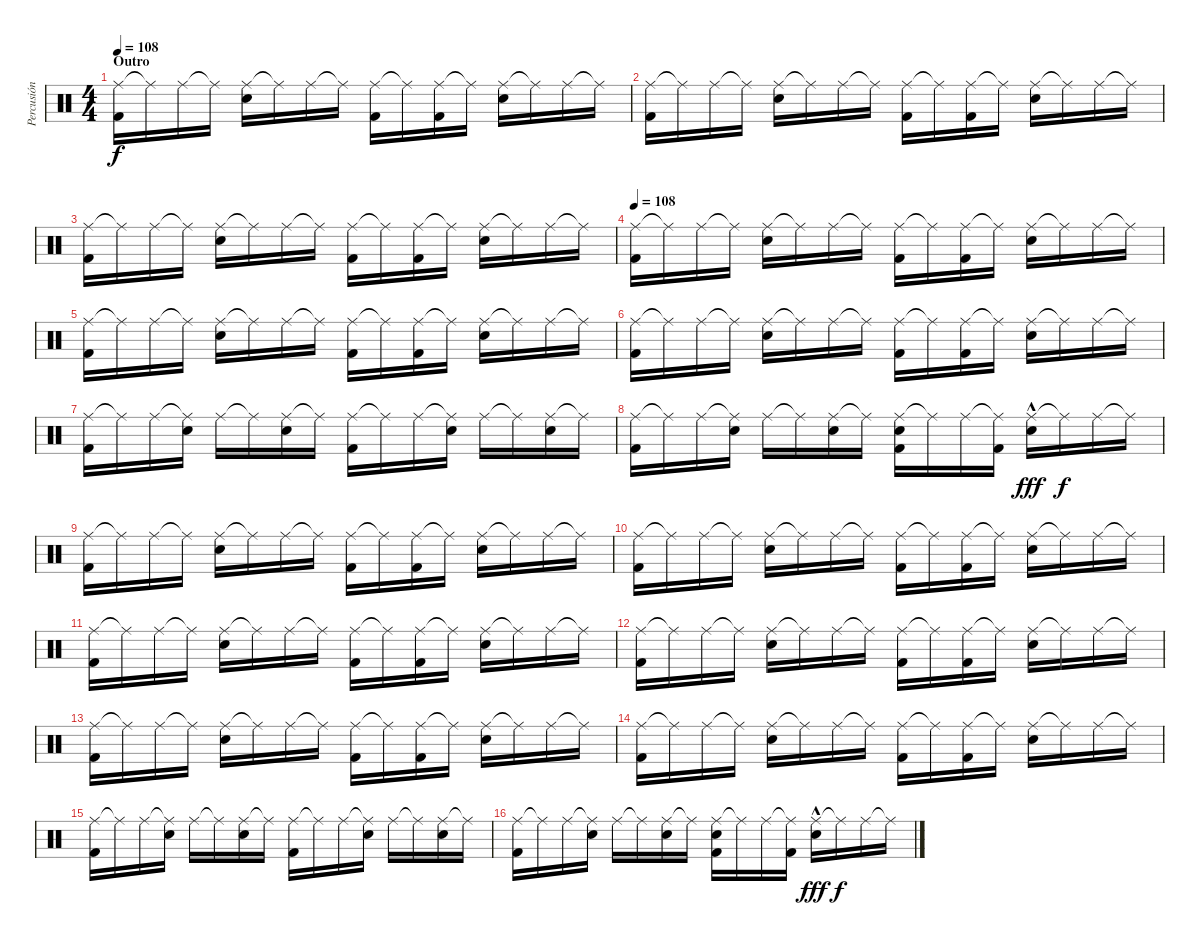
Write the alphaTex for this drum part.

\track ("Percusión" "Percusión") {instrument percussion}
\staff {score}
\articulation defaults
\ts (4 4)
\section ("" "Outro")
\tempo 108
\clef neutral
\ks c
("Ride (middle)" "Kick (hit) 2").16{dy f} "Ride (middle)"{t}.16 "Ride (middle)".16 "Ride (middle)"{t}.16 ("Ride (middle)" "Snare (hit) 2").16 "Ride (middle)"{t}.16 "Ride (middle)".16 "Ride (middle)"{t}.16 ("Ride (middle)" "Kick (hit) 2").16 "Ride (middle)"{t}.16 ("Ride (middle)" "Kick (hit) 2").16 "Ride (middle)"{t}.16 ("Ride (middle)" "Snare (hit) 2").16 "Ride (middle)"{t}.16 "Ride (middle)".16 "Ride (middle)"{t}.16 |
("Ride (middle)" "Kick (hit) 2").16 "Ride (middle)"{t}.16 "Ride (middle)".16 "Ride (middle)"{t}.16 ("Ride (middle)" "Snare (hit) 2").16 "Ride (middle)"{t}.16 "Ride (middle)".16 "Ride (middle)"{t}.16 ("Ride (middle)" "Kick (hit) 2").16 "Ride (middle)"{t}.16 ("Ride (middle)" "Kick (hit) 2").16 "Ride (middle)"{t}.16 ("Ride (middle)" "Snare (hit) 2").16 "Ride (middle)"{t}.16 "Ride (middle)".16 "Ride (middle)"{t}.16 |
("Ride (middle)" "Kick (hit) 2").16 "Ride (middle)"{t}.16 "Ride (middle)".16 "Ride (middle)"{t}.16 ("Ride (middle)" "Snare (hit) 2").16 "Ride (middle)"{t}.16 "Ride (middle)".16 "Ride (middle)"{t}.16 ("Ride (middle)" "Kick (hit) 2").16 "Ride (middle)"{t}.16 ("Ride (middle)" "Kick (hit) 2").16 "Ride (middle)"{t}.16 ("Ride (middle)" "Snare (hit) 2").16 "Ride (middle)"{t}.16 "Ride (middle)".16 "Ride (middle)"{t}.16 |
\tempo 108
("Ride (middle)" "Kick (hit) 2").16 "Ride (middle)"{t}.16 "Ride (middle)".16 "Ride (middle)"{t}.16 ("Ride (middle)" "Snare (hit) 2").16 "Ride (middle)"{t}.16 "Ride (middle)".16 "Ride (middle)"{t}.16 ("Ride (middle)" "Kick (hit) 2").16 "Ride (middle)"{t}.16 ("Ride (middle)" "Kick (hit) 2").16 "Ride (middle)"{t}.16 ("Ride (middle)" "Snare (hit) 2").16 "Ride (middle)"{t}.16 "Ride (middle)".16 "Ride (middle)"{t}.16 |
("Ride (middle)" "Kick (hit) 2").16 "Ride (middle)"{t}.16 "Ride (middle)".16 "Ride (middle)"{t}.16 ("Ride (middle)" "Snare (hit) 2").16 "Ride (middle)"{t}.16 "Ride (middle)".16 "Ride (middle)"{t}.16 ("Ride (middle)" "Kick (hit) 2").16 "Ride (middle)"{t}.16 ("Ride (middle)" "Kick (hit) 2").16 "Ride (middle)"{t}.16 ("Ride (middle)" "Snare (hit) 2").16 "Ride (middle)"{t}.16 "Ride (middle)".16 "Ride (middle)"{t}.16 |
("Ride (middle)" "Kick (hit) 2").16 "Ride (middle)"{t}.16 "Ride (middle)".16 "Ride (middle)"{t}.16 ("Ride (middle)" "Snare (hit) 2").16 "Ride (middle)"{t}.16 "Ride (middle)".16 "Ride (middle)"{t}.16 ("Ride (middle)" "Kick (hit) 2").16 "Ride (middle)"{t}.16 ("Ride (middle)" "Kick (hit) 2").16 "Ride (middle)"{t}.16 ("Ride (middle)" "Snare (hit) 2").16 "Ride (middle)"{t}.16 "Ride (middle)".16 "Ride (middle)"{t}.16 |
("Ride (middle)" "Kick (hit) 2").16 "Ride (middle)"{t}.16 "Ride (middle)".16 ("Ride (middle)"{t} "Snare (hit) 2").16 "Ride (middle)".16 "Ride (middle)"{t}.16 ("Ride (middle)" "Snare (hit) 2").16 "Ride (middle)"{t}.16 ("Ride (middle)" "Kick (hit) 2").16 "Ride (middle)"{t}.16 "Ride (middle)".16 ("Ride (middle)"{t} "Snare (hit) 2").16 "Ride (middle)".16 "Ride (middle)"{t}.16 ("Ride (middle)" "Snare (hit) 2").16 "Ride (middle)"{t}.16 |
("Ride (middle)" "Kick (hit) 2").16 "Ride (middle)"{t}.16 "Ride (middle)".16 ("Ride (middle)"{t} "Snare (hit) 2").16 "Ride (middle)".16 "Ride (middle)"{t}.16 ("Ride (middle)" "Snare (hit) 2").16 "Ride (middle)"{t}.16 ("Ride (middle)" "Snare (hit) 2" "Kick (hit) 2").16 "Ride (middle)"{t}.16 "Ride (middle)".16 ("Ride (middle)"{t} "Kick (hit) 2").16 ("Ride (middle)" "Snare (hit) 2"{hac}).16{dy fff} "Ride (middle)"{t}.16{dy f} "Ride (middle)".16 "Ride (middle)"{t}.16 |
("Ride (middle)" "Kick (hit) 2").16 "Ride (middle)"{t}.16 "Ride (middle)".16 "Ride (middle)"{t}.16 ("Ride (middle)" "Snare (hit) 2").16 "Ride (middle)"{t}.16 "Ride (middle)".16 "Ride (middle)"{t}.16 ("Ride (middle)" "Kick (hit) 2").16 "Ride (middle)"{t}.16 ("Ride (middle)" "Kick (hit) 2").16 "Ride (middle)"{t}.16 ("Ride (middle)" "Snare (hit) 2").16 "Ride (middle)"{t}.16 "Ride (middle)".16 "Ride (middle)"{t}.16 |
("Ride (middle)" "Kick (hit) 2").16 "Ride (middle)"{t}.16 "Ride (middle)".16 "Ride (middle)"{t}.16 ("Ride (middle)" "Snare (hit) 2").16 "Ride (middle)"{t}.16 "Ride (middle)".16 "Ride (middle)"{t}.16 ("Ride (middle)" "Kick (hit) 2").16 "Ride (middle)"{t}.16 ("Ride (middle)" "Kick (hit) 2").16 "Ride (middle)"{t}.16 ("Ride (middle)" "Snare (hit) 2").16 "Ride (middle)"{t}.16 "Ride (middle)".16 "Ride (middle)"{t}.16 |
("Ride (middle)" "Kick (hit) 2").16 "Ride (middle)"{t}.16 "Ride (middle)".16 "Ride (middle)"{t}.16 ("Ride (middle)" "Snare (hit) 2").16 "Ride (middle)"{t}.16 "Ride (middle)".16 "Ride (middle)"{t}.16 ("Ride (middle)" "Kick (hit) 2").16 "Ride (middle)"{t}.16 ("Ride (middle)" "Kick (hit) 2").16 "Ride (middle)"{t}.16 ("Ride (middle)" "Snare (hit) 2").16 "Ride (middle)"{t}.16 "Ride (middle)".16 "Ride (middle)"{t}.16 |
("Ride (middle)" "Kick (hit) 2").16 "Ride (middle)"{t}.16 "Ride (middle)".16 "Ride (middle)"{t}.16 ("Ride (middle)" "Snare (hit) 2").16 "Ride (middle)"{t}.16 "Ride (middle)".16 "Ride (middle)"{t}.16 ("Ride (middle)" "Kick (hit) 2").16 "Ride (middle)"{t}.16 ("Ride (middle)" "Kick (hit) 2").16 "Ride (middle)"{t}.16 ("Ride (middle)" "Snare (hit) 2").16 "Ride (middle)"{t}.16 "Ride (middle)".16 "Ride (middle)"{t}.16 |
("Ride (middle)" "Kick (hit) 2").16 "Ride (middle)"{t}.16 "Ride (middle)".16 "Ride (middle)"{t}.16 ("Ride (middle)" "Snare (hit) 2").16 "Ride (middle)"{t}.16 "Ride (middle)".16 "Ride (middle)"{t}.16 ("Ride (middle)" "Kick (hit) 2").16 "Ride (middle)"{t}.16 ("Ride (middle)" "Kick (hit) 2").16 "Ride (middle)"{t}.16 ("Ride (middle)" "Snare (hit) 2").16 "Ride (middle)"{t}.16 "Ride (middle)".16 "Ride (middle)"{t}.16 |
("Ride (middle)" "Kick (hit) 2").16 "Ride (middle)"{t}.16 "Ride (middle)".16 "Ride (middle)"{t}.16 ("Ride (middle)" "Snare (hit) 2").16 "Ride (middle)"{t}.16 "Ride (middle)".16 "Ride (middle)"{t}.16 ("Ride (middle)" "Kick (hit) 2").16 "Ride (middle)"{t}.16 ("Ride (middle)" "Kick (hit) 2").16 "Ride (middle)"{t}.16 ("Ride (middle)" "Snare (hit) 2").16 "Ride (middle)"{t}.16 "Ride (middle)".16 "Ride (middle)"{t}.16 |
("Ride (middle)" "Kick (hit) 2").16 "Ride (middle)"{t}.16 "Ride (middle)".16 ("Ride (middle)"{t} "Snare (hit) 2").16 "Ride (middle)".16 "Ride (middle)"{t}.16 ("Ride (middle)" "Snare (hit) 2").16 "Ride (middle)"{t}.16 ("Ride (middle)" "Kick (hit) 2").16 "Ride (middle)"{t}.16 "Ride (middle)".16 ("Ride (middle)"{t} "Snare (hit) 2").16 "Ride (middle)".16 "Ride (middle)"{t}.16 ("Ride (middle)" "Snare (hit) 2").16 "Ride (middle)"{t}.16 |
("Ride (middle)" "Kick (hit) 2").16 "Ride (middle)"{t}.16 "Ride (middle)".16 ("Ride (middle)"{t} "Snare (hit) 2").16 "Ride (middle)".16 "Ride (middle)"{t}.16 ("Ride (middle)" "Snare (hit) 2").16 "Ride (middle)"{t}.16 ("Ride (middle)" "Snare (hit) 2" "Kick (hit) 2").16 "Ride (middle)"{t}.16 "Ride (middle)".16 ("Ride (middle)"{t} "Kick (hit) 2").16 ("Ride (middle)" "Snare (hit) 2"{hac}).16{dy fff} "Ride (middle)"{t}.16{dy f} "Ride (middle)".16 "Ride (middle)"{t}.16
